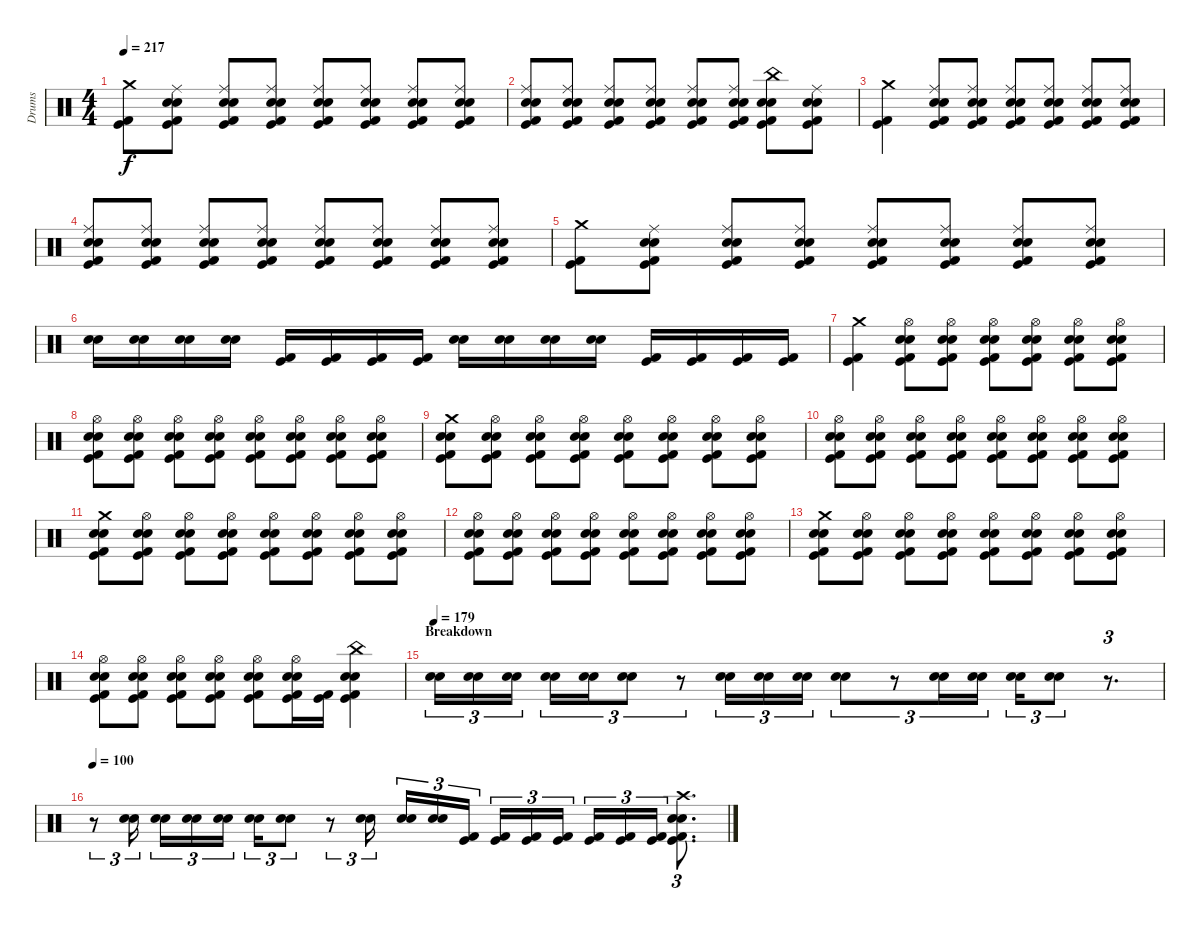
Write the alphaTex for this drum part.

\track ("Drums" "Drums") {instrument percussion}
\staff {score}
\articulation defaults
\ts (4 4)
\tempo 217
\clef neutral
\ks c
("Crash medium (hit)" "Kick (hit) 2" "Kick (hit)").8{dy f} ("Ride (middle)" "Electric Snare (hit)" "Electric Snare (hit)" "Kick (hit) 2" "Kick (hit)").8 ("Ride (middle)" "Electric Snare (hit)" "Electric Snare (hit)" "Kick (hit) 2" "Kick (hit)").8 ("Ride (middle)" "Electric Snare (hit)" "Electric Snare (hit)" "Kick (hit) 2" "Kick (hit)").8 ("Ride (middle)" "Electric Snare (hit)" "Electric Snare (hit)" "Kick (hit) 2" "Kick (hit)").8 ("Ride (middle)" "Electric Snare (hit)" "Electric Snare (hit)" "Kick (hit) 2" "Kick (hit)").8 ("Ride (middle)" "Electric Snare (hit)" "Electric Snare (hit)" "Kick (hit) 2" "Kick (hit)").8 ("Ride (middle)" "Electric Snare (hit)" "Electric Snare (hit)" "Kick (hit) 2" "Kick (hit)").8 |
("Ride (middle)" "Electric Snare (hit)" "Electric Snare (hit)" "Kick (hit) 2" "Kick (hit)").8 ("Ride (middle)" "Electric Snare (hit)" "Electric Snare (hit)" "Kick (hit) 2" "Kick (hit)").8 ("Ride (middle)" "Electric Snare (hit)" "Electric Snare (hit)" "Kick (hit) 2" "Kick (hit)").8 ("Ride (middle)" "Electric Snare (hit)" "Electric Snare (hit)" "Kick (hit) 2" "Kick (hit)").8 ("Ride (middle)" "Electric Snare (hit)" "Electric Snare (hit)" "Kick (hit) 2" "Kick (hit)").8 ("Ride (middle)" "Electric Snare (hit)" "Electric Snare (hit)" "Kick (hit) 2" "Kick (hit)").8 ("China (hit)" "Electric Snare (hit)" "Electric Snare (hit)" "Kick (hit) 2" "Kick (hit)").8 ("Ride (middle)" "Electric Snare (hit)" "Electric Snare (hit)" "Kick (hit) 2" "Kick (hit)").8 |
("Crash medium (hit)" "Kick (hit) 2" "Kick (hit)").4 ("Ride (middle)" "Electric Snare (hit)" "Electric Snare (hit)" "Kick (hit) 2" "Kick (hit)").8 ("Ride (middle)" "Electric Snare (hit)" "Electric Snare (hit)" "Kick (hit) 2" "Kick (hit)").8 ("Ride (middle)" "Electric Snare (hit)" "Electric Snare (hit)" "Kick (hit) 2" "Kick (hit)").8 ("Ride (middle)" "Electric Snare (hit)" "Electric Snare (hit)" "Kick (hit) 2" "Kick (hit)").8 ("Ride (middle)" "Electric Snare (hit)" "Electric Snare (hit)" "Kick (hit) 2" "Kick (hit)").8 ("Ride (middle)" "Electric Snare (hit)" "Electric Snare (hit)" "Kick (hit) 2" "Kick (hit)").8 |
("Ride (middle)" "Electric Snare (hit)" "Electric Snare (hit)" "Kick (hit) 2" "Kick (hit)").8 ("Ride (middle)" "Electric Snare (hit)" "Electric Snare (hit)" "Kick (hit) 2" "Kick (hit)").8 ("Ride (middle)" "Electric Snare (hit)" "Electric Snare (hit)" "Kick (hit) 2" "Kick (hit)").8 ("Ride (middle)" "Electric Snare (hit)" "Electric Snare (hit)" "Kick (hit) 2" "Kick (hit)").8 ("Ride (middle)" "Electric Snare (hit)" "Electric Snare (hit)" "Kick (hit) 2" "Kick (hit)").8 ("Ride (middle)" "Electric Snare (hit)" "Electric Snare (hit)" "Kick (hit) 2" "Kick (hit)").8 ("Ride (middle)" "Electric Snare (hit)" "Electric Snare (hit)" "Kick (hit) 2" "Kick (hit)").8 ("Ride (middle)" "Electric Snare (hit)" "Electric Snare (hit)" "Kick (hit) 2" "Kick (hit)").8 |
("Crash medium (hit)" "Kick (hit) 2" "Kick (hit)").8 ("Ride (middle)" "Electric Snare (hit)" "Electric Snare (hit)" "Kick (hit) 2" "Kick (hit)").8 ("Ride (middle)" "Electric Snare (hit)" "Electric Snare (hit)" "Kick (hit) 2" "Kick (hit)").8 ("Ride (middle)" "Electric Snare (hit)" "Electric Snare (hit)" "Kick (hit) 2" "Kick (hit)").8 ("Ride (middle)" "Electric Snare (hit)" "Electric Snare (hit)" "Kick (hit) 2" "Kick (hit)").8 ("Ride (middle)" "Electric Snare (hit)" "Electric Snare (hit)" "Kick (hit) 2" "Kick (hit)").8 ("Ride (middle)" "Electric Snare (hit)" "Electric Snare (hit)" "Kick (hit) 2" "Kick (hit)").8 ("Ride (middle)" "Electric Snare (hit)" "Electric Snare (hit)" "Kick (hit) 2" "Kick (hit)").8 |
("Electric Snare (hit)" "Electric Snare (hit)").16 ("Electric Snare (hit)" "Electric Snare (hit)").16 ("Electric Snare (hit)" "Electric Snare (hit)").16 ("Electric Snare (hit)" "Electric Snare (hit)").16 ("Kick (hit) 2" "Kick (hit)").16 ("Kick (hit) 2" "Kick (hit)").16 ("Kick (hit) 2" "Kick (hit)").16 ("Kick (hit) 2" "Kick (hit)").16 ("Electric Snare (hit)" "Electric Snare (hit)").16 ("Electric Snare (hit)" "Electric Snare (hit)").16 ("Electric Snare (hit)" "Electric Snare (hit)").16 ("Electric Snare (hit)" "Electric Snare (hit)").16 ("Kick (hit) 2" "Kick (hit)").16 ("Kick (hit) 2" "Kick (hit)").16 ("Kick (hit) 2" "Kick (hit)").16 ("Kick (hit) 2" "Kick (hit)").16 |
("Crash medium (hit)" "Kick (hit) 2" "Kick (hit)").4 ("Hi-Hat (open)" "Electric Snare (hit)" "Electric Snare (hit)" "Kick (hit) 2" "Kick (hit)").8 ("Hi-Hat (open)" "Electric Snare (hit)" "Electric Snare (hit)" "Kick (hit) 2" "Kick (hit)").8 ("Hi-Hat (open)" "Electric Snare (hit)" "Electric Snare (hit)" "Kick (hit) 2" "Kick (hit)").8 ("Hi-Hat (open)" "Electric Snare (hit)" "Electric Snare (hit)" "Kick (hit) 2" "Kick (hit)").8 ("Hi-Hat (open)" "Electric Snare (hit)" "Electric Snare (hit)" "Kick (hit) 2" "Kick (hit)").8 ("Hi-Hat (open)" "Electric Snare (hit)" "Electric Snare (hit)" "Kick (hit) 2" "Kick (hit)").8 |
("Hi-Hat (open)" "Electric Snare (hit)" "Electric Snare (hit)" "Kick (hit) 2" "Kick (hit)").8 ("Hi-Hat (open)" "Electric Snare (hit)" "Electric Snare (hit)" "Kick (hit) 2" "Kick (hit)").8 ("Hi-Hat (open)" "Electric Snare (hit)" "Electric Snare (hit)" "Kick (hit) 2" "Kick (hit)").8 ("Hi-Hat (open)" "Electric Snare (hit)" "Electric Snare (hit)" "Kick (hit) 2" "Kick (hit)").8 ("Hi-Hat (open)" "Electric Snare (hit)" "Electric Snare (hit)" "Kick (hit) 2" "Kick (hit)").8 ("Hi-Hat (open)" "Electric Snare (hit)" "Electric Snare (hit)" "Kick (hit) 2" "Kick (hit)").8 ("Hi-Hat (open)" "Electric Snare (hit)" "Electric Snare (hit)" "Kick (hit) 2" "Kick (hit)").8 ("Hi-Hat (open)" "Electric Snare (hit)" "Electric Snare (hit)" "Kick (hit) 2" "Kick (hit)").8 |
("Crash medium (hit)" "Electric Snare (hit)" "Electric Snare (hit)" "Kick (hit) 2" "Kick (hit)").8 ("Hi-Hat (open)" "Electric Snare (hit)" "Electric Snare (hit)" "Kick (hit) 2" "Kick (hit)").8 ("Hi-Hat (open)" "Electric Snare (hit)" "Electric Snare (hit)" "Kick (hit) 2" "Kick (hit)").8 ("Hi-Hat (open)" "Electric Snare (hit)" "Electric Snare (hit)" "Kick (hit) 2" "Kick (hit)").8 ("Hi-Hat (open)" "Electric Snare (hit)" "Electric Snare (hit)" "Kick (hit) 2" "Kick (hit)").8 ("Hi-Hat (open)" "Electric Snare (hit)" "Electric Snare (hit)" "Kick (hit) 2" "Kick (hit)").8 ("Hi-Hat (open)" "Electric Snare (hit)" "Electric Snare (hit)" "Kick (hit) 2" "Kick (hit)").8 ("Hi-Hat (open)" "Electric Snare (hit)" "Electric Snare (hit)" "Kick (hit) 2" "Kick (hit)").8 |
("Hi-Hat (open)" "Electric Snare (hit)" "Electric Snare (hit)" "Kick (hit) 2" "Kick (hit)").8 ("Hi-Hat (open)" "Electric Snare (hit)" "Electric Snare (hit)" "Kick (hit) 2" "Kick (hit)").8 ("Hi-Hat (open)" "Electric Snare (hit)" "Electric Snare (hit)" "Kick (hit) 2" "Kick (hit)").8 ("Hi-Hat (open)" "Electric Snare (hit)" "Electric Snare (hit)" "Kick (hit) 2" "Kick (hit)").8 ("Hi-Hat (open)" "Electric Snare (hit)" "Electric Snare (hit)" "Kick (hit) 2" "Kick (hit)").8 ("Hi-Hat (open)" "Electric Snare (hit)" "Electric Snare (hit)" "Kick (hit) 2" "Kick (hit)").8 ("Hi-Hat (open)" "Electric Snare (hit)" "Electric Snare (hit)" "Kick (hit) 2" "Kick (hit)").8 ("Hi-Hat (open)" "Electric Snare (hit)" "Electric Snare (hit)" "Kick (hit) 2" "Kick (hit)").8 |
("Crash medium (hit)" "Electric Snare (hit)" "Electric Snare (hit)" "Kick (hit) 2" "Kick (hit)").8 ("Hi-Hat (open)" "Electric Snare (hit)" "Electric Snare (hit)" "Kick (hit) 2" "Kick (hit)").8 ("Hi-Hat (open)" "Electric Snare (hit)" "Electric Snare (hit)" "Kick (hit) 2" "Kick (hit)").8 ("Hi-Hat (open)" "Electric Snare (hit)" "Electric Snare (hit)" "Kick (hit) 2" "Kick (hit)").8 ("Hi-Hat (open)" "Electric Snare (hit)" "Electric Snare (hit)" "Kick (hit) 2" "Kick (hit)").8 ("Hi-Hat (open)" "Electric Snare (hit)" "Electric Snare (hit)" "Kick (hit) 2" "Kick (hit)").8 ("Hi-Hat (open)" "Electric Snare (hit)" "Electric Snare (hit)" "Kick (hit) 2" "Kick (hit)").8 ("Hi-Hat (open)" "Electric Snare (hit)" "Electric Snare (hit)" "Kick (hit) 2" "Kick (hit)").8 |
("Hi-Hat (open)" "Electric Snare (hit)" "Electric Snare (hit)" "Kick (hit) 2" "Kick (hit)").8 ("Hi-Hat (open)" "Electric Snare (hit)" "Electric Snare (hit)" "Kick (hit) 2" "Kick (hit)").8 ("Hi-Hat (open)" "Electric Snare (hit)" "Electric Snare (hit)" "Kick (hit) 2" "Kick (hit)").8 ("Hi-Hat (open)" "Electric Snare (hit)" "Electric Snare (hit)" "Kick (hit) 2" "Kick (hit)").8 ("Hi-Hat (open)" "Electric Snare (hit)" "Electric Snare (hit)" "Kick (hit) 2" "Kick (hit)").8 ("Hi-Hat (open)" "Electric Snare (hit)" "Electric Snare (hit)" "Kick (hit) 2" "Kick (hit)").8 ("Hi-Hat (open)" "Electric Snare (hit)" "Electric Snare (hit)" "Kick (hit) 2" "Kick (hit)").8 ("Hi-Hat (open)" "Electric Snare (hit)" "Electric Snare (hit)" "Kick (hit) 2" "Kick (hit)").8 |
("Crash medium (hit)" "Electric Snare (hit)" "Electric Snare (hit)" "Kick (hit) 2" "Kick (hit)").8 ("Hi-Hat (open)" "Electric Snare (hit)" "Electric Snare (hit)" "Kick (hit) 2" "Kick (hit)").8 ("Hi-Hat (open)" "Electric Snare (hit)" "Electric Snare (hit)" "Kick (hit) 2" "Kick (hit)").8 ("Hi-Hat (open)" "Electric Snare (hit)" "Electric Snare (hit)" "Kick (hit) 2" "Kick (hit)").8 ("Hi-Hat (open)" "Electric Snare (hit)" "Electric Snare (hit)" "Kick (hit) 2" "Kick (hit)").8 ("Hi-Hat (open)" "Electric Snare (hit)" "Electric Snare (hit)" "Kick (hit) 2" "Kick (hit)").8 ("Hi-Hat (open)" "Electric Snare (hit)" "Electric Snare (hit)" "Kick (hit) 2" "Kick (hit)").8 ("Hi-Hat (open)" "Electric Snare (hit)" "Electric Snare (hit)" "Kick (hit) 2" "Kick (hit)").8 |
("Hi-Hat (open)" "Electric Snare (hit)" "Electric Snare (hit)" "Kick (hit) 2" "Kick (hit)").8 ("Hi-Hat (open)" "Electric Snare (hit)" "Electric Snare (hit)" "Kick (hit) 2" "Kick (hit)").8 ("Hi-Hat (open)" "Electric Snare (hit)" "Electric Snare (hit)" "Kick (hit) 2" "Kick (hit)").8 ("Hi-Hat (open)" "Electric Snare (hit)" "Electric Snare (hit)" "Kick (hit) 2" "Kick (hit)").8 ("Hi-Hat (open)" "Electric Snare (hit)" "Electric Snare (hit)" "Kick (hit) 2" "Kick (hit)").8 ("Hi-Hat (open)" "Electric Snare (hit)" "Electric Snare (hit)" "Kick (hit) 2" "Kick (hit)").16 ("Kick (hit) 2" "Kick (hit)").16 ("China (hit)" "Electric Snare (hit)" "Electric Snare (hit)" "Kick (hit) 2" "Kick (hit)").4 |
\section ("" "Breakdown")
\tempo 179
("Electric Snare (hit)" "Electric Snare (hit)").16{tu (3 2)} ("Electric Snare (hit)" "Electric Snare (hit)").16{tu (3 2)} ("Electric Snare (hit)" "Electric Snare (hit)").16{tu (3 2) beam splitsecondary} ("Electric Snare (hit)" "Electric Snare (hit)").16{tu (3 2)} ("Electric Snare (hit)" "Electric Snare (hit)").16{tu (3 2)} ("Electric Snare (hit)" "Electric Snare (hit)").8{tu (3 2)} r.8{tu (3 2)} ("Electric Snare (hit)" "Electric Snare (hit)").16{tu (3 2)} ("Electric Snare (hit)" "Electric Snare (hit)").16{tu (3 2)} ("Electric Snare (hit)" "Electric Snare (hit)").16{tu (3 2)} ("Electric Snare (hit)" "Electric Snare (hit)").8{tu (3 2)} r.8{tu (3 2)} ("Electric Snare (hit)" "Electric Snare (hit)").16{tu (3 2)} ("Electric Snare (hit)" "Electric Snare (hit)").16{tu (3 2)} ("Electric Snare (hit)" "Electric Snare (hit)").16{tu (3 2)} ("Electric Snare (hit)" "Electric Snare (hit)").8{tu (3 2)} r.8{d tu (3 2)} |
\tempo 100
r.8{tu (3 2)} ("Electric Snare (hit)" "Electric Snare (hit)").16{tu (3 2) beam splitsecondary} ("Electric Snare (hit)" "Electric Snare (hit)").16{tu (3 2)} ("Electric Snare (hit)" "Electric Snare (hit)").16{tu (3 2)} ("Electric Snare (hit)" "Electric Snare (hit)").16{tu (3 2)} ("Electric Snare (hit)" "Electric Snare (hit)").16{tu (3 2)} ("Electric Snare (hit)" "Electric Snare (hit)").8{tu (3 2)} r.8{tu (3 2)} ("Electric Snare (hit)" "Electric Snare (hit)").16{tu (3 2)} ("Electric Snare (hit)" "Electric Snare (hit)").16{tu (3 2)} ("Electric Snare (hit)" "Electric Snare (hit)").16{tu (3 2)} ("Kick (hit) 2" "Kick (hit)").16{tu (3 2) beam splitsecondary} ("Kick (hit) 2" "Kick (hit)").16{tu (3 2)} ("Kick (hit) 2" "Kick (hit)").16{tu (3 2)} ("Kick (hit) 2" "Kick (hit)").16{tu (3 2)} ("Kick (hit) 2" "Kick (hit)").16{tu (3 2)} ("Kick (hit) 2" "Kick (hit)").16{tu (3 2)} ("Kick (hit) 2" "Kick (hit)").16{tu (3 2)} ("Crash high (hit)" "Electric Snare (hit)" "Electric Snare (hit)" "Kick (hit) 2" "Kick (hit)").8{d tu (3 2)}
